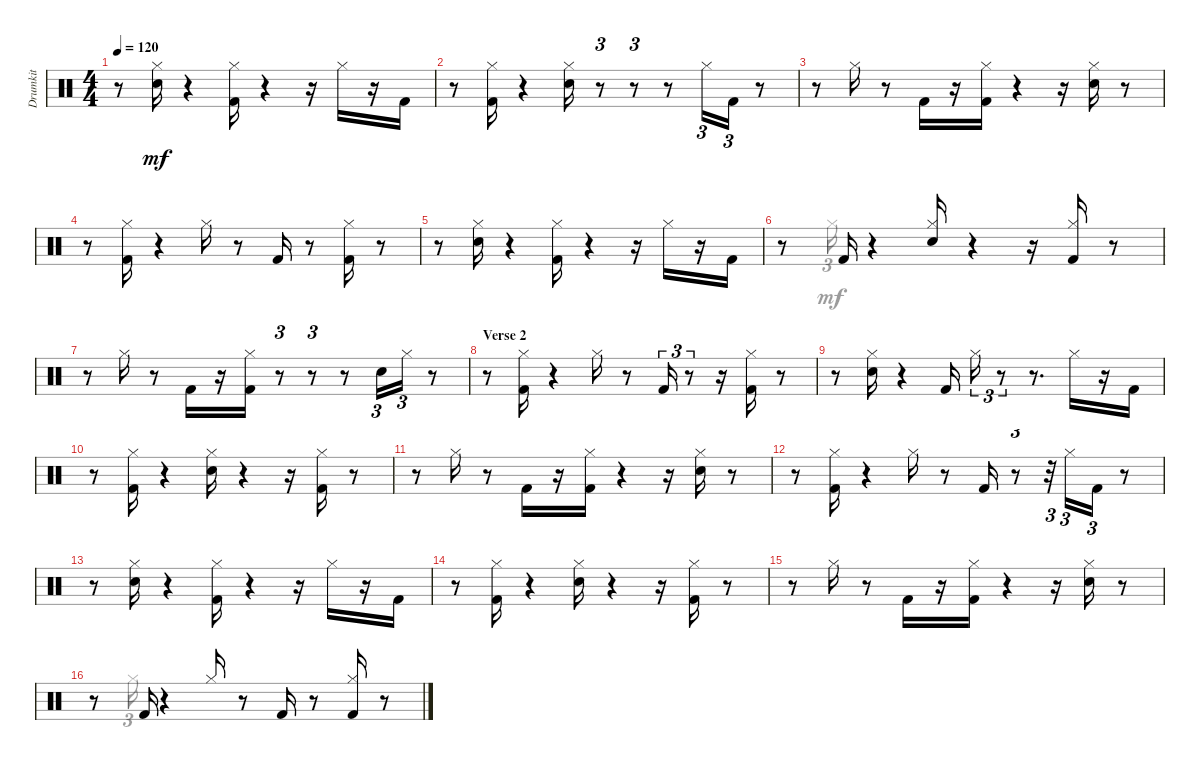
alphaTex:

\track ("Drumkit" "Drumkit") {instrument percussion}
\staff {score}
\articulation defaults
\voice
\ts (4 4)
\tempo 120
\clef neutral
\ks aminor
r.8{dy mf} ("Snare (hit) 2" "Hi-Hat (closed)").16 r.4 ("Kick (hit) 2" "Hi-Hat (closed)").16 r.4 r.16 "Hi-Hat (closed)".16 r.16 "Kick (hit) 2".16 |
r.8 ("Kick (hit) 2" "Hi-Hat (closed)").16 r.4 ("Snare (hit) 2" "Hi-Hat (closed)").16 r.8{tu (3 2)} r.8{tu (3 2)} r.8 "Hi-Hat (closed)".16{tu (3 2)} "Kick (hit) 2".16{tu (3 2)} r.8 |
r.8 "Hi-Hat (closed)".16 r.8 "Kick (hit) 2".16 r.16 ("Kick (hit) 2" "Hi-Hat (closed)").16 r.4 r.16 ("Snare (hit) 2" "Hi-Hat (closed)").16 r.8 |
r.8 ("Kick (hit) 2" "Hi-Hat (closed)").16 r.4 "Hi-Hat (closed)".16 r.8 "Kick (hit) 2".16 r.8 ("Kick (hit) 2" "Hi-Hat (closed)").16 r.8 |
r.8 ("Snare (hit) 2" "Hi-Hat (closed)").16 r.4 ("Kick (hit) 2" "Hi-Hat (closed)").16 r.4 r.16 "Hi-Hat (closed)".16 r.16 "Kick (hit) 2".16 |
r.8 "Kick (hit) 2".16 r.4 ("Snare (hit) 2" "Hi-Hat (closed)").16 r.4 r.16 ("Kick (hit) 2" "Hi-Hat (closed)").16 r.8 |
r.8 "Hi-Hat (closed)".16 r.8 "Kick (hit) 2".16 r.16 ("Kick (hit) 2" "Hi-Hat (closed)").16 r.8{tu (3 2)} r.8{tu (3 2)} r.8 "Snare (hit) 2".16{tu (3 2)} "Hi-Hat (closed)".16{tu (3 2)} r.8 |
\section ("" "Verse 2")
r.8 ("Kick (hit) 2" "Hi-Hat (closed)").16 r.4 "Hi-Hat (closed)".16 r.8 "Kick (hit) 2".16{tu (3 2)} r.8{tu (3 2)} r.16 ("Kick (hit) 2" "Hi-Hat (closed)").16 r.8 |
r.8 ("Snare (hit) 2" "Hi-Hat (closed)").16 r.4 "Kick (hit) 2".16 "Hi-Hat (closed)".16{tu (3 2)} r.8{tu (3 2)} r.8{d} "Hi-Hat (closed)".16 r.16 "Kick (hit) 2".16 |
r.8 ("Kick (hit) 2" "Hi-Hat (closed)").16 r.4 ("Snare (hit) 2" "Hi-Hat (closed)").16 r.4 r.16 ("Kick (hit) 2" "Hi-Hat (closed)").16 r.8 |
r.8 "Hi-Hat (closed)".16 r.8 "Kick (hit) 2".16 r.16 ("Kick (hit) 2" "Hi-Hat (closed)").16 r.4 r.16 ("Snare (hit) 2" "Hi-Hat (closed)").16 r.8 |
r.8 ("Kick (hit) 2" "Hi-Hat (closed)").16 r.4 "Hi-Hat (closed)".16 r.8 "Kick (hit) 2".16 r.8{tu (3 2)} r.32{tu (3 2)} "Hi-Hat (closed)".16{tu (3 2)} "Kick (hit) 2".16{tu (3 2)} r.8 |
r.8 ("Snare (hit) 2" "Hi-Hat (closed)").16 r.4 ("Kick (hit) 2" "Hi-Hat (closed)").16 r.4 r.16 "Hi-Hat (closed)".16 r.16 "Kick (hit) 2".16 |
r.8 ("Kick (hit) 2" "Hi-Hat (closed)").16 r.4 ("Snare (hit) 2" "Hi-Hat (closed)").16 r.4 r.16 ("Kick (hit) 2" "Hi-Hat (closed)").16 r.8 |
r.8 "Hi-Hat (closed)".16 r.8 "Kick (hit) 2".16 r.16 ("Kick (hit) 2" "Hi-Hat (closed)").16 r.4 r.16 ("Snare (hit) 2" "Hi-Hat (closed)").16 r.8 |
r.8 "Kick (hit) 2".16 r.4 "Hi-Hat (closed)".16 r.8 "Kick (hit) 2".16 r.8 ("Kick (hit) 2" "Hi-Hat (closed)").16 r.8
\voice
\clef neutral
\ottava regular
\simile none
\ks aminor
|
|
|
|
|
r.8 "Hi-Hat (closed)".16{tu (3 2)} |
|
|
|
|
|
|
|
|
|
r.8 "Hi-Hat (closed)".16{tu (3 2)}
